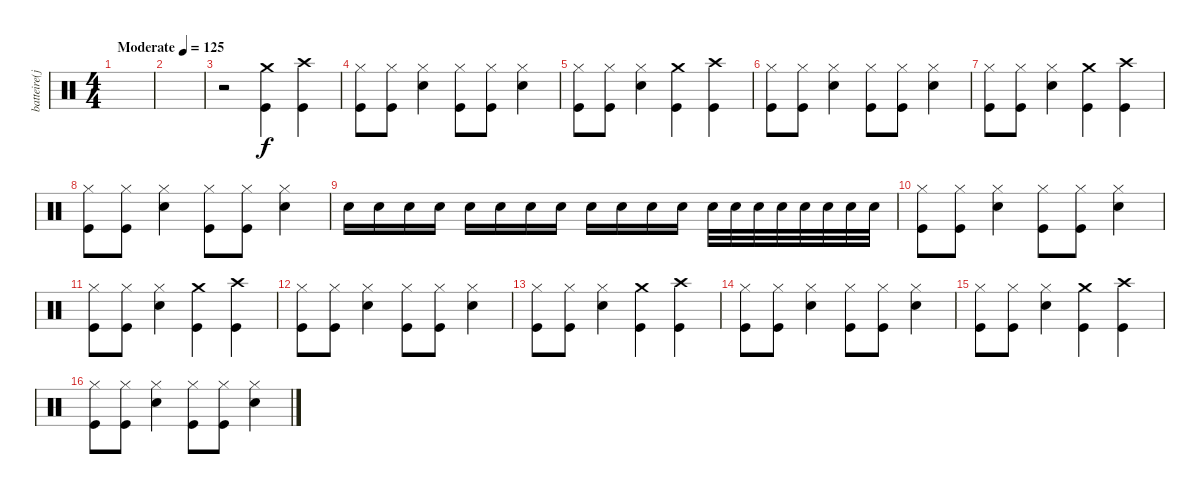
\track ("batteire(jesus bonehead)" "batteire(j") {instrument percussion}
\staff {score}
\articulation defaults
\ts (4 4)
\tempo (125 "Moderate")
\clef neutral
\ks c
|
|
r.2 ("Crash medium (hit)" "Kick (hit)").4 ("Crash high (hit)" "Kick (hit)").4 |
("Hi-Hat (closed)" "Kick (hit)").8 ("Hi-Hat (closed)" "Kick (hit)").8 ("Hi-Hat (closed)" "Snare (hit) 2").4 ("Hi-Hat (closed)" "Kick (hit)").8 ("Hi-Hat (closed)" "Kick (hit)").8 ("Hi-Hat (closed)" "Snare (hit) 2").4 |
("Hi-Hat (closed)" "Kick (hit)").8 ("Hi-Hat (closed)" "Kick (hit)").8 ("Hi-Hat (closed)" "Snare (hit) 2").4 ("Crash medium (hit)" "Kick (hit)").4 ("Crash high (hit)" "Kick (hit)").4 |
("Hi-Hat (closed)" "Kick (hit)").8 ("Hi-Hat (closed)" "Kick (hit)").8 ("Hi-Hat (closed)" "Snare (hit) 2").4 ("Hi-Hat (closed)" "Kick (hit)").8 ("Hi-Hat (closed)" "Kick (hit)").8 ("Hi-Hat (closed)" "Snare (hit) 2").4 |
("Hi-Hat (closed)" "Kick (hit)").8 ("Hi-Hat (closed)" "Kick (hit)").8 ("Hi-Hat (closed)" "Snare (hit) 2").4 ("Crash medium (hit)" "Kick (hit)").4 ("Crash high (hit)" "Kick (hit)").4 |
("Hi-Hat (closed)" "Kick (hit)").8 ("Hi-Hat (closed)" "Kick (hit)").8 ("Hi-Hat (closed)" "Snare (hit) 2").4 ("Hi-Hat (closed)" "Kick (hit)").8 ("Hi-Hat (closed)" "Kick (hit)").8 ("Hi-Hat (closed)" "Snare (hit) 2").4 |
"Snare (hit) 2".16 "Snare (hit) 2".16 "Snare (hit) 2".16 "Snare (hit) 2".16 "Snare (hit) 2".16 "Snare (hit) 2".16 "Snare (hit) 2".16 "Snare (hit) 2".16 "Snare (hit) 2".16 "Snare (hit) 2".16 "Snare (hit) 2".16 "Snare (hit) 2".16 "Snare (hit) 2".32 "Snare (hit) 2".32 "Snare (hit) 2".32 "Snare (hit) 2".32 "Snare (hit) 2".32 "Snare (hit) 2".32 "Snare (hit) 2".32 "Snare (hit) 2".32 |
("Hi-Hat (closed)" "Kick (hit)").8 ("Hi-Hat (closed)" "Kick (hit)").8 ("Hi-Hat (closed)" "Snare (hit) 2").4 ("Hi-Hat (closed)" "Kick (hit)").8 ("Hi-Hat (closed)" "Kick (hit)").8 ("Hi-Hat (closed)" "Snare (hit) 2").4 |
("Hi-Hat (closed)" "Kick (hit)").8 ("Hi-Hat (closed)" "Kick (hit)").8 ("Hi-Hat (closed)" "Snare (hit) 2").4 ("Crash medium (hit)" "Kick (hit)").4 ("Crash high (hit)" "Kick (hit)").4 |
("Hi-Hat (closed)" "Kick (hit)").8 ("Hi-Hat (closed)" "Kick (hit)").8 ("Hi-Hat (closed)" "Snare (hit) 2").4 ("Hi-Hat (closed)" "Kick (hit)").8 ("Hi-Hat (closed)" "Kick (hit)").8 ("Hi-Hat (closed)" "Snare (hit) 2").4 |
("Hi-Hat (closed)" "Kick (hit)").8 ("Hi-Hat (closed)" "Kick (hit)").8 ("Hi-Hat (closed)" "Snare (hit) 2").4 ("Crash medium (hit)" "Kick (hit)").4 ("Crash high (hit)" "Kick (hit)").4 |
("Hi-Hat (closed)" "Kick (hit)").8 ("Hi-Hat (closed)" "Kick (hit)").8 ("Hi-Hat (closed)" "Snare (hit) 2").4 ("Hi-Hat (closed)" "Kick (hit)").8 ("Hi-Hat (closed)" "Kick (hit)").8 ("Hi-Hat (closed)" "Snare (hit) 2").4 |
("Hi-Hat (closed)" "Kick (hit)").8 ("Hi-Hat (closed)" "Kick (hit)").8 ("Hi-Hat (closed)" "Snare (hit) 2").4 ("Crash medium (hit)" "Kick (hit)").4 ("Crash high (hit)" "Kick (hit)").4 |
("Hi-Hat (closed)" "Kick (hit)").8 ("Hi-Hat (closed)" "Kick (hit)").8 ("Hi-Hat (closed)" "Snare (hit) 2").4 ("Hi-Hat (closed)" "Kick (hit)").8 ("Hi-Hat (closed)" "Kick (hit)").8 ("Hi-Hat (closed)" "Snare (hit) 2").4
